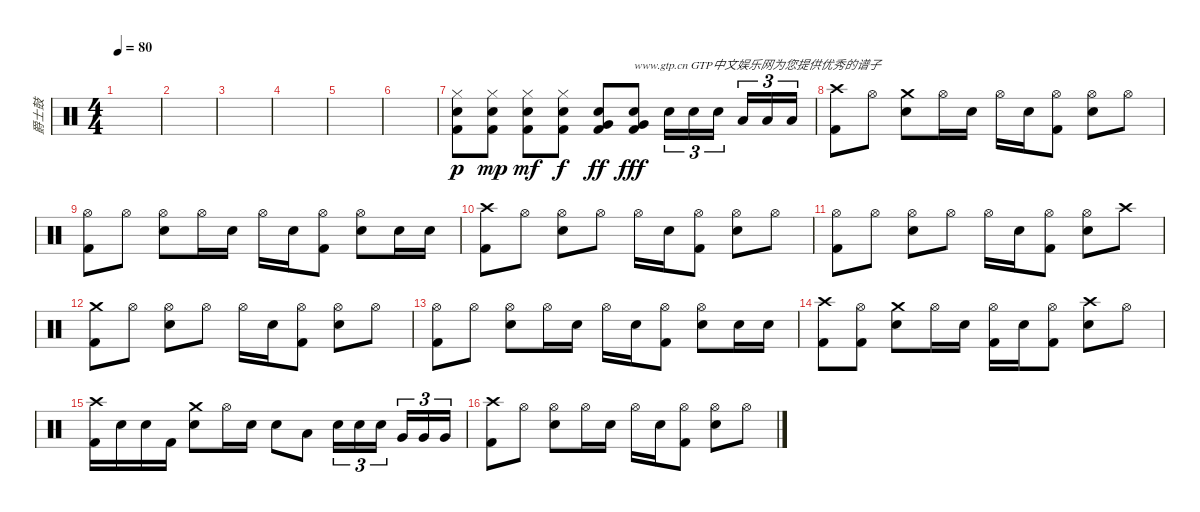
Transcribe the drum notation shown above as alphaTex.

\track ("爵士鼓" "爵士鼓") {instrument percussion}
\staff {score}
\articulation defaults
\ts (4 4)
\tempo 80
\clef neutral
\ks c
|
|
|
|
|
|
("Hi-Hat (closed)" "Electric Snare (hit)" "Kick (hit) 2").8{dy p} ("Hi-Hat (closed)" "Electric Snare (hit)" "Kick (hit) 2").8{dy mp} ("Hi-Hat (closed)" "Electric Snare (hit)" "Kick (hit) 2").8{dy mf} ("Hi-Hat (closed)" "Electric Snare (hit)" "Kick (hit) 2").8{dy f} ("Very Low Tom (hit)" "Electric Snare (hit)" "Kick (hit) 2").8{dy ff} ("Very Low Tom (hit)" "Electric Snare (hit)" "Kick (hit) 2").8{txt "www.gtp.cn GTP中文娱乐网为您提供优秀的谱子" dy fff} "Electric Snare (hit)".16{tu (3 2)} "Electric Snare (hit)".16{tu (3 2)} "Electric Snare (hit)".16{tu (3 2) beam splitsecondary} "Low Tom (hit)".16{tu (3 2)} "Low Tom (hit)".16{tu (3 2)} "Low Tom (hit)".16{tu (3 2)} |
("Crash high (hit)" "Kick (hit) 2").8 "Hi-Hat (open)".8 ("Crash medium (hit)" "Electric Snare (hit)").8 "Hi-Hat (open)".16 "Electric Snare (hit)".16 "Hi-Hat (open)".16 "Electric Snare (hit)".16 ("Hi-Hat (open)" "Kick (hit) 2").8 ("Hi-Hat (open)" "Electric Snare (hit)").8 "Hi-Hat (open)".8 |
("Hi-Hat (open)" "Kick (hit) 2").8 "Hi-Hat (open)".8 ("Hi-Hat (open)" "Electric Snare (hit)").8 "Hi-Hat (open)".16 "Electric Snare (hit)".16 "Hi-Hat (open)".16 "Electric Snare (hit)".16 ("Hi-Hat (open)" "Kick (hit) 2").8 ("Hi-Hat (open)" "Electric Snare (hit)").8 "Electric Snare (hit)".16 "Electric Snare (hit)".16 |
("Crash high (hit)" "Kick (hit) 2").8 "Hi-Hat (open)".8 ("Hi-Hat (open)" "Electric Snare (hit)").8 "Hi-Hat (open)".8 "Hi-Hat (open)".16 "Electric Snare (hit)".16 ("Hi-Hat (open)" "Kick (hit) 2").8 ("Hi-Hat (open)" "Electric Snare (hit)").8 "Hi-Hat (open)".8 |
("Hi-Hat (open)" "Kick (hit) 2").8 "Hi-Hat (open)".8 ("Hi-Hat (open)" "Electric Snare (hit)").8 "Hi-Hat (open)".8 "Hi-Hat (open)".16 "Electric Snare (hit)".16 ("Hi-Hat (open)" "Kick (hit) 2").8 ("Hi-Hat (open)" "Electric Snare (hit)").8 "Crash high (hit)".8 |
("Crash medium (hit)" "Kick (hit) 2").8 "Hi-Hat (open)".8 ("Hi-Hat (open)" "Electric Snare (hit)").8 "Hi-Hat (open)".8 "Hi-Hat (open)".16 "Electric Snare (hit)".16 ("Hi-Hat (open)" "Kick (hit) 2").8 ("Hi-Hat (open)" "Electric Snare (hit)").8 "Hi-Hat (open)".8 |
("Hi-Hat (open)" "Kick (hit) 2").8 "Hi-Hat (open)".8 ("Hi-Hat (open)" "Electric Snare (hit)").8 "Hi-Hat (open)".16 "Electric Snare (hit)".16 "Hi-Hat (open)".16 "Electric Snare (hit)".16 ("Hi-Hat (open)" "Kick (hit) 2").8 ("Hi-Hat (open)" "Electric Snare (hit)").8 "Electric Snare (hit)".16 "Electric Snare (hit)".16 |
("Crash high (hit)" "Kick (hit) 2").8 ("Hi-Hat (open)" "Kick (hit) 2").8 ("Crash medium (hit)" "Electric Snare (hit)").8 "Hi-Hat (open)".16 "Electric Snare (hit)".16 ("Hi-Hat (open)" "Kick (hit) 2").16 "Electric Snare (hit)".16 ("Hi-Hat (open)" "Kick (hit) 2").8 ("Crash high (hit)" "Electric Snare (hit)").8 "Hi-Hat (open)".8 |
("Crash high (hit)" "Kick (hit) 2").16 "Electric Snare (hit)".16 "Electric Snare (hit)".16 "Kick (hit) 2".16 ("Crash medium (hit)" "Electric Snare (hit)").8 "Hi-Hat (open)".16 "Electric Snare (hit)".16 "Electric Snare (hit)".8 "Low Tom (hit)".8 "Electric Snare (hit)".16{tu (3 2)} "Electric Snare (hit)".16{tu (3 2)} "Electric Snare (hit)".16{tu (3 2) beam splitsecondary} "Very Low Tom (hit)".16{tu (3 2)} "Very Low Tom (hit)".16{tu (3 2)} "Very Low Tom (hit)".16{tu (3 2)} |
("Crash high (hit)" "Kick (hit) 2").8 "Hi-Hat (open)".8 ("Hi-Hat (open)" "Electric Snare (hit)").8 "Hi-Hat (open)".16 "Electric Snare (hit)".16 "Hi-Hat (open)".16 "Electric Snare (hit)".16 ("Hi-Hat (open)" "Kick (hit) 2").8 ("Hi-Hat (open)" "Electric Snare (hit)").8 "Hi-Hat (open)".8
